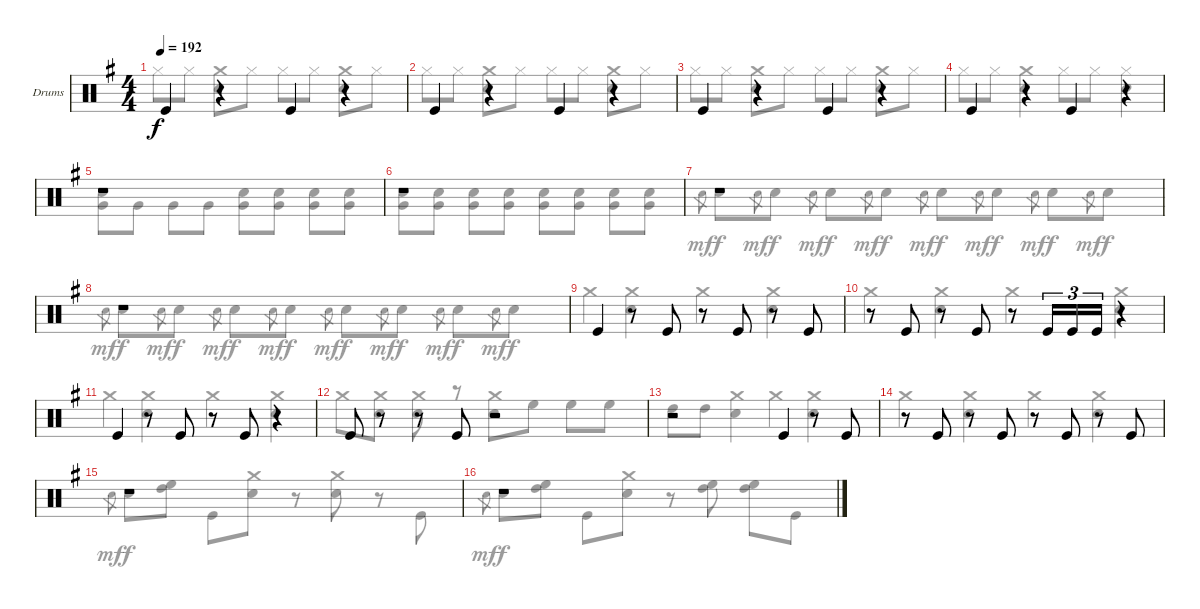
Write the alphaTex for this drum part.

\bracketExtendMode groupsimilarinstruments
\firstSystemTrackNameOrientation horizontal
\otherSystemsTrackNameOrientation horizontal
\track ("Drumkit" "Drums") {instrument percussion}
\staff {score}
\articulation defaults
\voice
\ts (4 4)
\tempo 192
\clef neutral
\scale
1.04288
\ks g "Kick (hit)".4{dy f}
r.4 "Kick (hit)".4 r.4 |
\scale
0.957125 "Kick (hit)".4 r.4 "Kick (hit)".4 r.4 |
\scale
1.04288 "Kick (hit)".4 r.4 "Kick (hit)".4 r.4 |
\scale
0.957125 "Kick (hit)".4 r.4 "Kick (hit)".4 r.4 |
\scale
1.04288 r.1 |
\scale
0.957125 r.1 |
\scale
1.04288 r.1 |
\scale
0.957125 r.1 |
\scale
1.04288 "Kick (hit)".4 r.8 "Kick (hit)".8 r.8 "Kick (hit)".8 r.8 "Kick (hit)".8 |
\scale
0.957125 r.8 "Kick (hit)".8 r.8 "Kick (hit)".8 r.8 "Kick (hit)".16{tu (3 2)} "Kick (hit)".16{tu (3 2)} "Kick (hit)".16{tu (3 2)} r.4 |
\scale
1.04288 "Kick (hit)".4 r.8 "Kick (hit)".8 r.8 "Kick (hit)".8 r.4 |
\scale
0.957125 "Kick (hit)".8 r.8 r.8 "Kick (hit)".8 r.2 |
\scale
1.04288 r.2 "Kick (hit)".4 r.8 "Kick (hit)".8 |
\scale
0.957125 r.8 "Kick (hit)".8 r.8 "Kick (hit)".8 r.8 "Kick (hit)".8 r.8 "Kick (hit)".8 |
\scale
1.04288 r.1 |
\scale
0.957125 r.1
\voice
\clef neutral
\ottava regular
\simile none
\scale
1.04288
\ks g "Hi-Hat (closed)".8{dy f} "Hi-Hat (closed)".8
("Crash medium (hit)" "Snare (hit) 2").8 "Hi-Hat (closed)".8 "Hi-Hat (closed)".8 "Hi-Hat (closed)".8 ("Crash medium (hit)" "Snare (hit) 2").8 "Hi-Hat (closed)".8 |
\scale
0.957125 "Hi-Hat (closed)".8 "Hi-Hat (closed)".8 ("Crash medium (hit)" "Snare (hit) 2").8 "Hi-Hat (closed)".8 "Hi-Hat (closed)".8 "Hi-Hat (closed)".8 ("Crash medium (hit)" "Snare (hit) 2").8 "Hi-Hat (closed)".8 |
\scale
1.04288 "Hi-Hat (closed)".8 "Hi-Hat (closed)".8 ("Crash medium (hit)" "Snare (hit) 2").8 "Hi-Hat (closed)".8 "Hi-Hat (closed)".8 "Hi-Hat (closed)".8 ("Crash medium (hit)" "Snare (hit) 2").8 "Hi-Hat (closed)".8 |
\scale
0.957125 "Hi-Hat (closed)".8 "Hi-Hat (closed)".8 ("Crash medium (hit)" "Snare (hit) 2").4 "Hi-Hat (closed)".8 "Hi-Hat (closed)".8 ("Hi-Hat (closed)" "Snare (hit) 2").4 |
\scale
1.04288 ("Snare (hit) 2" "Very Low Tom (hit)").8 "Very Low Tom (hit)".8 "Very Low Tom (hit)".8 "Very Low Tom (hit)".8 ("Snare (hit) 2" "Very Low Tom (hit)").8 ("Snare (hit) 2" "Very Low Tom (hit)").8 ("Snare (hit) 2" "Very Low Tom (hit)").8 ("Snare (hit) 2" "Very Low Tom (hit)").8 |
\scale
0.957125 ("Snare (hit) 2" "Very Low Tom (hit)").8 ("Snare (hit) 2" "Very Low Tom (hit)").8 ("Snare (hit) 2" "Very Low Tom (hit)").8 ("Snare (hit) 2" "Very Low Tom (hit)").8 ("Snare (hit) 2" "Very Low Tom (hit)").8 ("Snare (hit) 2" "Very Low Tom (hit)").8 ("Snare (hit) 2" "Very Low Tom (hit)").8 ("Snare (hit) 2" "Very Low Tom (hit)").8 |
\scale
1.04288 "Snare (hit) 2".8{gr dy mf} "Snare (hit) 2".8{dy f} "Snare (hit) 2".8{gr dy mf} "Snare (hit) 2".8{dy f} "Snare (hit) 2".8{gr dy mf} "Snare (hit) 2".8{dy f} "Snare (hit) 2".8{gr dy mf} "Snare (hit) 2".8{dy f} "Snare (hit) 2".8{gr dy mf} "Snare (hit) 2".8{dy f} "Snare (hit) 2".8{gr dy mf} "Snare (hit) 2".8{dy f} "Snare (hit) 2".8{gr dy mf} "Snare (hit) 2".8{dy f} "Snare (hit) 2".8{gr dy mf} "Snare (hit) 2".8{dy f} |
\scale
0.957125 "Snare (hit) 2".8{gr dy mf} "Snare (hit) 2".8{dy f} "Snare (hit) 2".8{gr dy mf} "Snare (hit) 2".8{dy f} "Snare (hit) 2".8{gr dy mf} "Snare (hit) 2".8{dy f} "Snare (hit) 2".8{gr dy mf} "Snare (hit) 2".8{dy f} "Snare (hit) 2".8{gr dy mf} "Snare (hit) 2".8{dy f} "Snare (hit) 2".8{gr dy mf} "Snare (hit) 2".8{dy f} "Snare (hit) 2".8{gr dy mf} "Snare (hit) 2".8{dy f} "Snare (hit) 2".8{gr dy mf} "Snare (hit) 2".8{dy f} |
\scale
1.04288 "Crash medium (hit)".4 ("Crash medium (hit)" "Snare (hit) 2").4 "Crash medium (hit)".4 ("Crash medium (hit)" "Snare (hit) 2").4 |
\scale
0.957125 "Crash medium (hit)".4 ("Crash medium (hit)" "Snare (hit) 2").4 "Crash medium (hit)".4 ("Crash medium (hit)" "Snare (hit) 2").4 |
\scale
1.04288 "Crash medium (hit)".4 ("Crash medium (hit)" "Snare (hit) 2").4 "Crash medium (hit)".4 ("Crash medium (hit)" "Snare (hit) 2").4 |
\scale
0.957125 "Crash medium (hit)".8 ("Crash medium (hit)" "Snare (hit) 2").8 ("Crash medium (hit)" "Snare (hit) 2").8 r.8 ("Crash medium (hit)" "Snare (hit) 2").8 "High Floor Tom (hit)".8 "High Floor Tom (hit)".8 "High Floor Tom (hit)".8 |
\scale
1.04288 "High Tom (hit)".8 "High Tom (hit)".8 ("Crash medium (hit)" "Snare (hit) 2").4 "Crash medium (hit)".4 ("Crash medium (hit)" "Snare (hit) 2").4 |
\scale
0.957125 "Crash medium (hit)".4 ("Crash medium (hit)" "Snare (hit) 2").4 "Crash medium (hit)".4 ("Crash medium (hit)" "Snare (hit) 2").4 |
\scale
1.04288 "Snare (hit) 2".8{gr dy mf} "Snare (hit) 2".8{dy f} ("High Tom (hit)" "High Floor Tom (hit)").8 "Kick (hit)".8 ("Crash medium (hit)" "Snare (hit) 2").8 r.8 ("Crash medium (hit)" "Snare (hit) 2").8 r.8 "Kick (hit)".8 |
\scale
0.957125 "Snare (hit) 2".8{gr dy mf} "Snare (hit) 2".8{dy f} ("High Tom (hit)" "High Floor Tom (hit)").8 "Kick (hit)".8 ("Crash medium (hit)" "Snare (hit) 2").8 r.8 ("High Tom (hit)" "High Floor Tom (hit)").8 ("High Tom (hit)" "High Floor Tom (hit)").8 "Kick (hit)".8
